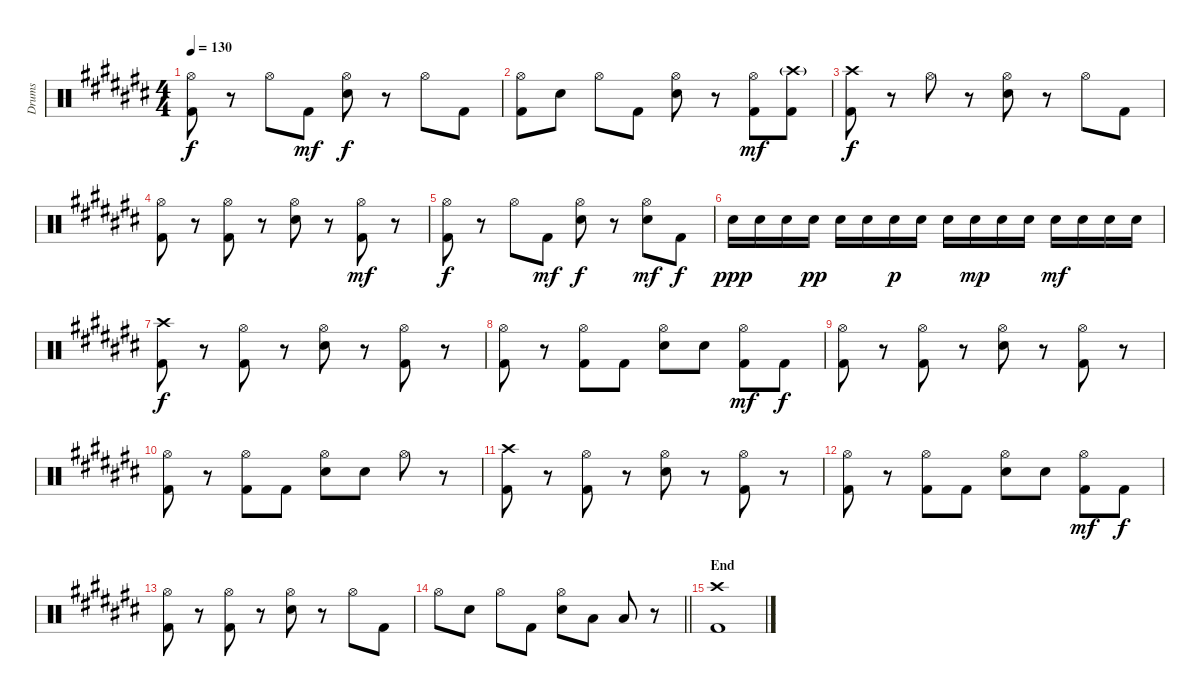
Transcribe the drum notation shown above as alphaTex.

\track ("Drums" "Drums") {instrument percussion}
\staff {score}
\articulation defaults
\ts (4 4)
\tempo 130
\clef neutral
\ks c#
("Hi-Hat (open)" "Kick (hit) 2").8{dy f} r.8 "Hi-Hat (open)".8 "Kick (hit) 2".8{dy mf} ("Hi-Hat (open)" "Electric Snare (hit)").8{dy f} r.8 "Hi-Hat (open)".8 "Kick (hit) 2".8 |
("Hi-Hat (open)" "Kick (hit) 2").8 "Electric Snare (hit)".8 "Hi-Hat (open)".8 "Kick (hit) 2".8 ("Hi-Hat (open)" "Electric Snare (hit)").8 r.8 ("Hi-Hat (open)" "Kick (hit) 2").8{dy mf} ("Crash high (hit)"{g} "Kick (hit) 2").8 |
("Crash high (hit)" "Kick (hit) 2").8{dy f} r.8 "Hi-Hat (open)".8 r.8 ("Hi-Hat (open)" "Electric Snare (hit)").8 r.8 "Hi-Hat (open)".8 "Kick (hit) 2".8 |
("Hi-Hat (open)" "Kick (hit) 2").8 r.8 ("Hi-Hat (open)" "Kick (hit) 2").8 r.8 ("Hi-Hat (open)" "Electric Snare (hit)").8 r.8 ("Hi-Hat (open)" "Kick (hit) 2").8{dy mf} r.8 |
("Hi-Hat (open)" "Kick (hit) 2").8{dy f} r.8 "Hi-Hat (open)".8 "Kick (hit) 2".8{dy mf} ("Hi-Hat (open)" "Electric Snare (hit)").8{dy f} r.8 ("Hi-Hat (open)" "Electric Snare (hit)").8{dy mf} "Kick (hit) 2".8{dy f} |
"Electric Snare (hit)".16{dy ppp} "Electric Snare (hit)".16 "Electric Snare (hit)".16 "Electric Snare (hit)".16{dy pp} "Electric Snare (hit)".16 "Electric Snare (hit)".16 "Electric Snare (hit)".16{dy p} "Electric Snare (hit)".16 "Electric Snare (hit)".16 "Electric Snare (hit)".16{dy mp} "Electric Snare (hit)".16 "Electric Snare (hit)".16 "Electric Snare (hit)".16{dy mf} "Electric Snare (hit)".16 "Electric Snare (hit)".16 "Electric Snare (hit)".16 |
("Crash high (hit)" "Kick (hit) 2").8{dy f} r.8 ("Hi-Hat (open)" "Kick (hit) 2").8 r.8 ("Hi-Hat (open)" "Electric Snare (hit)").8 r.8 ("Hi-Hat (open)" "Kick (hit) 2").8 r.8 |
("Hi-Hat (open)" "Kick (hit) 2").8 r.8 ("Hi-Hat (open)" "Kick (hit) 2").8 "Kick (hit) 2".8 ("Hi-Hat (open)" "Electric Snare (hit)").8 "Electric Snare (hit)".8 ("Hi-Hat (open)" "Kick (hit) 2").8{dy mf} "Kick (hit) 2".8{dy f} |
("Hi-Hat (open)" "Kick (hit) 2").8 r.8 ("Hi-Hat (open)" "Kick (hit) 2").8 r.8 ("Hi-Hat (open)" "Electric Snare (hit)").8 r.8 ("Hi-Hat (open)" "Kick (hit) 2").8 r.8 |
("Hi-Hat (open)" "Kick (hit) 2").8 r.8 ("Hi-Hat (open)" "Kick (hit) 2").8 "Kick (hit) 2".8 ("Hi-Hat (open)" "Electric Snare (hit)").8 "Electric Snare (hit)".8 "Hi-Hat (open)".8 r.8 |
("Crash high (hit)" "Kick (hit) 2").8 r.8 ("Hi-Hat (open)" "Kick (hit) 2").8 r.8 ("Hi-Hat (open)" "Electric Snare (hit)").8 r.8 ("Hi-Hat (open)" "Kick (hit) 2").8 r.8 |
("Hi-Hat (open)" "Kick (hit) 2").8 r.8 ("Hi-Hat (open)" "Kick (hit) 2").8 "Kick (hit) 2".8 ("Hi-Hat (open)" "Electric Snare (hit)").8 "Electric Snare (hit)".8 ("Hi-Hat (open)" "Kick (hit) 2").8{dy mf} "Kick (hit) 2".8{dy f} |
("Hi-Hat (open)" "Kick (hit) 2").8 r.8 ("Hi-Hat (open)" "Kick (hit) 2").8 r.8 ("Hi-Hat (open)" "Electric Snare (hit)").8 r.8 "Hi-Hat (open)".8 "Kick (hit) 2".8 |
\barLineRight lightlight "Hi-Hat (open)".8 "Electric Snare (hit)".8 "Hi-Hat (open)".8 "Kick (hit) 2".8
("Hi-Hat (open)" "Electric Snare (hit)").8 "Low Floor Tom (hit)".8 "Low Floor Tom (hit)".8 r.8 |
\section ("" "End")
("Crash high (hit)" "Kick (hit) 2").1
